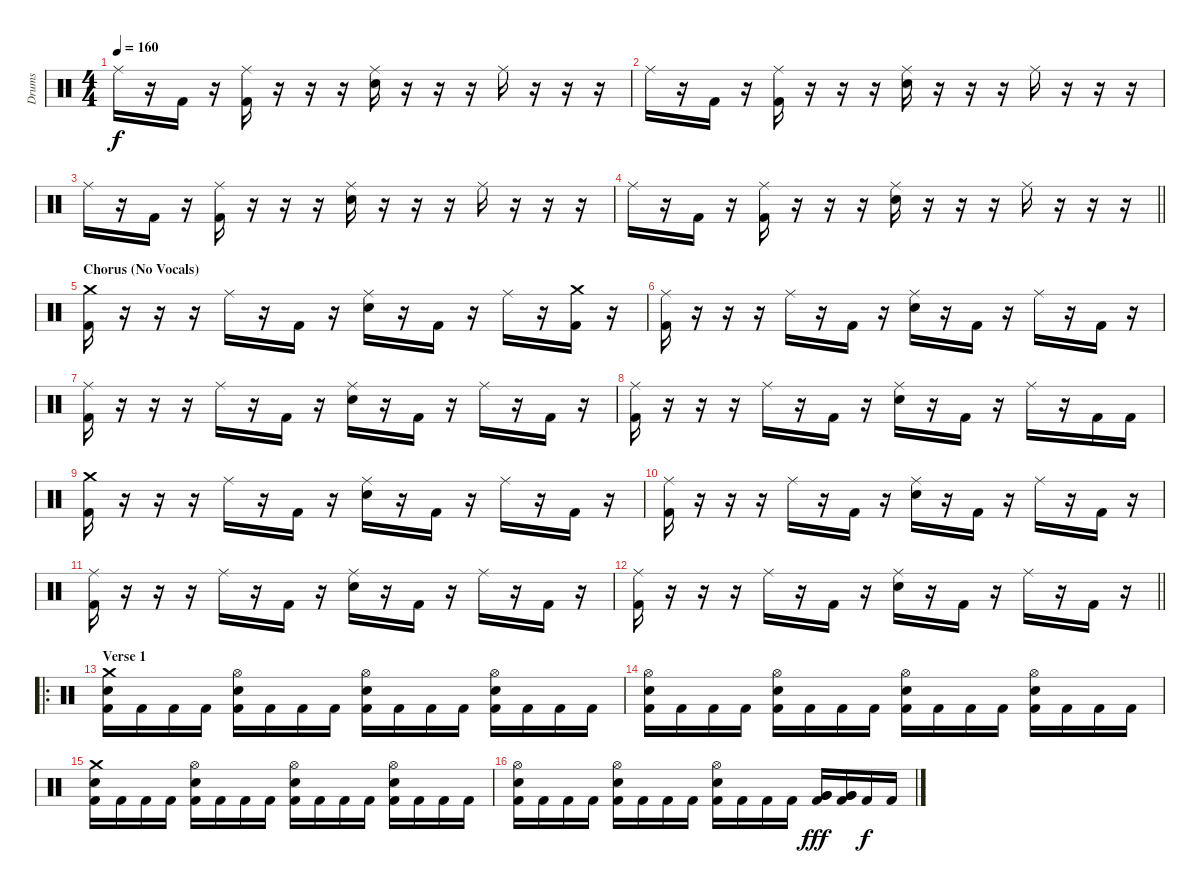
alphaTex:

\track ("Drums" "Drums") {instrument percussion}
\staff {score}
\articulation defaults
\ts (4 4)
\tempo 160
\clef neutral
\ks c "Ride (middle)".16{dy f}
r.16 "Kick (hit) 2".16 r.16 ("Ride (middle)" "Kick (hit) 2").16 r.16 r.16 r.16 ("Ride (middle)" "Electric Snare (hit)").16 r.16 r.16 r.16 "Ride (middle)".16 r.16 r.16 r.16 |
"Ride (middle)".16 r.16 "Kick (hit) 2".16 r.16 ("Ride (middle)" "Kick (hit) 2").16 r.16 r.16 r.16 ("Ride (middle)" "Electric Snare (hit)").16 r.16 r.16 r.16 "Ride (middle)".16 r.16 r.16 r.16 |
"Ride (middle)".16 r.16 "Kick (hit) 2".16 r.16 ("Ride (middle)" "Kick (hit) 2").16 r.16 r.16 r.16 ("Ride (middle)" "Electric Snare (hit)").16 r.16 r.16 r.16 "Ride (middle)".16 r.16 r.16 r.16 |
\barLineRight lightlight "Ride (middle)".16
r.16 "Kick (hit) 2".16 r.16 ("Ride (middle)" "Kick (hit) 2").16 r.16 r.16 r.16 ("Ride (middle)" "Electric Snare (hit)").16 r.16 r.16 r.16 "Ride (middle)".16 r.16 r.16 r.16 |
\section ("" "Chorus (No Vocals)")
("Crash medium (hit)" "Kick (hit) 2").16 r.16 r.16 r.16 "Ride (middle)".16 r.16 "Kick (hit) 2".16 r.16 ("Ride (middle)" "Electric Snare (hit)").16 r.16 "Kick (hit) 2".16 r.16 "Ride (middle)".16 r.16 ("Crash medium (hit)" "Kick (hit) 2").16 r.16 |
("Ride (middle)" "Kick (hit) 2").16 r.16 r.16 r.16 "Ride (middle)".16 r.16 "Kick (hit) 2".16 r.16 ("Ride (middle)" "Electric Snare (hit)").16 r.16 "Kick (hit) 2".16 r.16 "Ride (middle)".16 r.16 "Kick (hit) 2".16 r.16 |
("Ride (middle)" "Kick (hit) 2").16 r.16 r.16 r.16 "Ride (middle)".16 r.16 "Kick (hit) 2".16 r.16 ("Ride (middle)" "Electric Snare (hit)").16 r.16 "Kick (hit) 2".16 r.16 "Ride (middle)".16 r.16 "Kick (hit) 2".16 r.16 |
("Ride (middle)" "Kick (hit) 2").16 r.16 r.16 r.16 "Ride (middle)".16 r.16 "Kick (hit) 2".16 r.16 ("Ride (middle)" "Electric Snare (hit)").16 r.16 "Kick (hit) 2".16 r.16 "Ride (middle)".16 r.16 "Kick (hit) 2".16 "Kick (hit) 2".16 |
("Crash medium (hit)" "Kick (hit) 2").16 r.16 r.16 r.16 "Ride (middle)".16 r.16 "Kick (hit) 2".16 r.16 ("Ride (middle)" "Electric Snare (hit)").16 r.16 "Kick (hit) 2".16 r.16 "Ride (middle)".16 r.16 "Kick (hit) 2".16 r.16 |
("Ride (middle)" "Kick (hit) 2").16 r.16 r.16 r.16 "Ride (middle)".16 r.16 "Kick (hit) 2".16 r.16 ("Ride (middle)" "Electric Snare (hit)").16 r.16 "Kick (hit) 2".16 r.16 "Ride (middle)".16 r.16 "Kick (hit) 2".16 r.16 |
("Ride (middle)" "Kick (hit) 2").16 r.16 r.16 r.16 "Ride (middle)".16 r.16 "Kick (hit) 2".16 r.16 ("Ride (middle)" "Electric Snare (hit)").16 r.16 "Kick (hit) 2".16 r.16 "Ride (middle)".16 r.16 "Kick (hit) 2".16 r.16 |
\barLineRight lightlight
("Ride (middle)" "Kick (hit) 2").16 r.16 r.16 r.16 "Ride (middle)".16 r.16 "Kick (hit) 2".16 r.16 ("Ride (middle)" "Electric Snare (hit)").16 r.16 "Kick (hit) 2".16 r.16 "Ride (middle)".16 r.16 "Kick (hit) 2".16 r.16 |
\ro
\section ("" "Verse 1")
("Crash medium (hit)" "Electric Snare (hit)" "Kick (hit) 2").16 "Kick (hit) 2".16 "Kick (hit) 2".16 "Kick (hit) 2".16 ("Hi-Hat (open)" "Electric Snare (hit)" "Kick (hit) 2").16 "Kick (hit) 2".16 "Kick (hit) 2".16 "Kick (hit) 2".16 ("Hi-Hat (open)" "Electric Snare (hit)" "Kick (hit) 2").16 "Kick (hit) 2".16 "Kick (hit) 2".16 "Kick (hit) 2".16 ("Hi-Hat (open)" "Electric Snare (hit)" "Kick (hit) 2").16 "Kick (hit) 2".16 "Kick (hit) 2".16 "Kick (hit) 2".16 |
("Hi-Hat (open)" "Electric Snare (hit)" "Kick (hit) 2").16 "Kick (hit) 2".16 "Kick (hit) 2".16 "Kick (hit) 2".16 ("Hi-Hat (open)" "Electric Snare (hit)" "Kick (hit) 2").16 "Kick (hit) 2".16 "Kick (hit) 2".16 "Kick (hit) 2".16 ("Hi-Hat (open)" "Electric Snare (hit)" "Kick (hit) 2").16 "Kick (hit) 2".16 "Kick (hit) 2".16 "Kick (hit) 2".16 ("Hi-Hat (open)" "Electric Snare (hit)" "Kick (hit) 2").16 "Kick (hit) 2".16 "Kick (hit) 2".16 "Kick (hit) 2".16 |
("Crash medium (hit)" "Electric Snare (hit)" "Kick (hit) 2").16 "Kick (hit) 2".16 "Kick (hit) 2".16 "Kick (hit) 2".16 ("Hi-Hat (open)" "Electric Snare (hit)" "Kick (hit) 2").16 "Kick (hit) 2".16 "Kick (hit) 2".16 "Kick (hit) 2".16 ("Hi-Hat (open)" "Electric Snare (hit)" "Kick (hit) 2").16 "Kick (hit) 2".16 "Kick (hit) 2".16 "Kick (hit) 2".16 ("Hi-Hat (open)" "Electric Snare (hit)" "Kick (hit) 2").16 "Kick (hit) 2".16 "Kick (hit) 2".16 "Kick (hit) 2".16 |
("Hi-Hat (open)" "Electric Snare (hit)" "Kick (hit) 2").16 "Kick (hit) 2".16 "Kick (hit) 2".16 "Kick (hit) 2".16 ("Hi-Hat (open)" "Electric Snare (hit)" "Kick (hit) 2").16 "Kick (hit) 2".16 "Kick (hit) 2".16 "Kick (hit) 2".16 ("Hi-Hat (open)" "Electric Snare (hit)" "Kick (hit) 2").16 "Kick (hit) 2".16 "Kick (hit) 2".16 "Kick (hit) 2".16 ("Very Low Tom (hit)" "Very Low Tom (hit)" "Kick (hit) 2").16{dy fff} ("Very Low Tom (hit)" "Very Low Tom (hit)" "Kick (hit) 2").16 "Kick (hit) 2".16{dy f} "Kick (hit) 2".16
